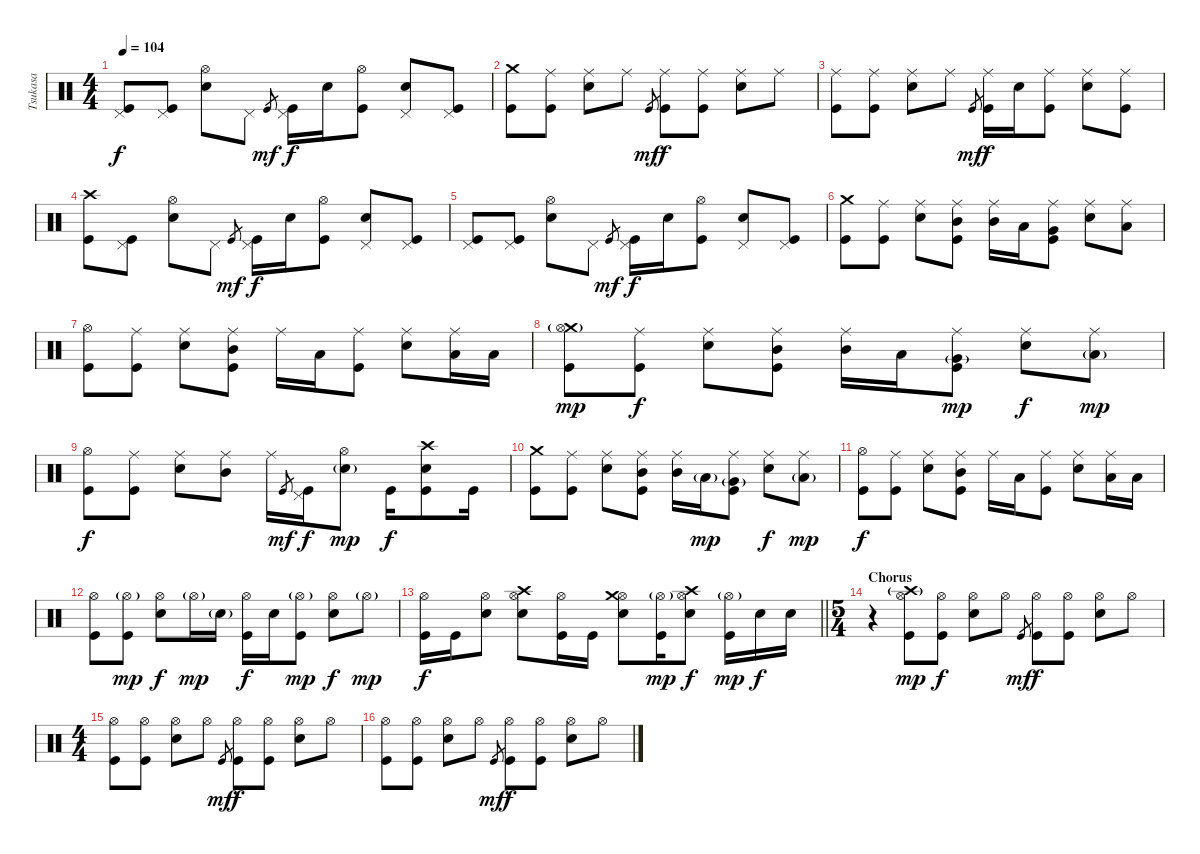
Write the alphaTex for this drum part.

\track ("Tsukasa" "Tsukasa") {instrument percussion}
\staff {score}
\articulation defaults
\ts (4 4)
\tempo 104
\clef neutral
\ks c
("Pedal Hi-Hat (hit)" "Kick (hit)").8{dy f} ("Pedal Hi-Hat (hit)" "Kick (hit)").8 ("Hi-Hat (open)" "Snare (hit) 2").8 "Pedal Hi-Hat (hit)".8 "Kick (hit)".8{gr dy mf} ("Pedal Hi-Hat (hit)" "Kick (hit)").16{dy f} "Snare (hit) 2".16 ("Hi-Hat (open)" "Kick (hit)").8 ("Pedal Hi-Hat (hit)" "Snare (hit) 2").8 ("Pedal Hi-Hat (hit)" "Kick (hit)").8 |
("Crash medium (hit)" "Kick (hit)").8 ("Ride (middle)" "Kick (hit)").8 ("Ride (middle)" "Snare (hit) 2").8 "Ride (middle)".8 "Kick (hit)".8{gr dy mf} ("Ride (middle)" "Kick (hit)").8{dy f} ("Ride (middle)" "Kick (hit)").8 ("Ride (middle)" "Snare (hit) 2").8 "Ride (middle)".8 |
("Ride (middle)" "Kick (hit)").8 ("Ride (middle)" "Kick (hit)").8 ("Ride (middle)" "Snare (hit) 2").8 "Ride (middle)".8 "Kick (hit)".8{gr dy mf} ("Ride (middle)" "Kick (hit)").16{dy f} "Snare (hit) 2".16 ("Ride (middle)" "Kick (hit)").8 ("Ride (middle)" "Snare (hit) 2").8 ("Ride (middle)" "Kick (hit)").8 |
("Crash high (hit)" "Kick (hit)").8 ("Pedal Hi-Hat (hit)" "Kick (hit)").8 ("Hi-Hat (open)" "Snare (hit) 2").8 "Pedal Hi-Hat (hit)".8 "Kick (hit)".8{gr dy mf} ("Pedal Hi-Hat (hit)" "Kick (hit)").16{dy f} "Snare (hit) 2".16 ("Hi-Hat (open)" "Kick (hit)").8 ("Pedal Hi-Hat (hit)" "Snare (hit) 2").8 ("Pedal Hi-Hat (hit)" "Kick (hit)").8 |
("Pedal Hi-Hat (hit)" "Kick (hit)").8 ("Pedal Hi-Hat (hit)" "Kick (hit)").8 ("Hi-Hat (open)" "Snare (hit) 2").8 "Pedal Hi-Hat (hit)".8 "Kick (hit)".8{gr dy mf} ("Pedal Hi-Hat (hit)" "Kick (hit)").16{dy f} "Snare (hit) 2".16 ("Hi-Hat (open)" "Kick (hit)").8 ("Pedal Hi-Hat (hit)" "Snare (hit) 2").8 ("Pedal Hi-Hat (hit)" "Kick (hit)").8 |
("Crash medium (hit)" "Kick (hit)").8 ("Ride (middle)" "Kick (hit)").8 ("Ride (middle)" "Snare (hit) 2").8 ("Ride (middle)" "Mid Tom (hit)" "Kick (hit)").8 ("Ride (middle)" "Mid Tom (hit)").16 "Low Tom (hit)".16 ("Ride (middle)" "Very Low Tom (hit)" "Kick (hit)").8 ("Ride (middle)" "Snare (hit) 2").8 ("Ride (middle)" "Low Floor Tom (hit)").8 |
("Hi-Hat (open)" "Kick (hit)").8 ("Ride (middle)" "Kick (hit)").8 ("Ride (middle)" "Snare (hit) 2").8 ("Ride (middle)" "Mid Tom (hit)" "Kick (hit)").8 "Ride (middle)".16 "Low Tom (hit)".16 ("Ride (middle)" "Kick (hit)").8 ("Ride (middle)" "Snare (hit) 2").8 ("Ride (middle)" "Low Floor Tom (hit)").16 "Low Floor Tom (hit)".16 |
("Crash medium (hit)"{g} "Hi-Hat (open)"{g} "Kick (hit)").8{dy mp} ("Ride (middle)" "Kick (hit)").8{dy f} ("Ride (middle)" "Snare (hit) 2").8 ("Ride (middle)" "Mid Tom (hit)" "Kick (hit)").8 ("Ride (middle)" "Mid Tom (hit)").16 "Low Tom (hit)".16 ("Ride (middle)" "Very Low Tom (hit)"{g} "Kick (hit)").8{dy mp} ("Ride (middle)" "Snare (hit) 2").8{dy f} ("Ride (middle)" "Low Floor Tom (hit)"{g}).8{dy mp} |
("Hi-Hat (open)" "Kick (hit)").8{dy f} ("Ride (middle)" "Kick (hit)").8 ("Ride (middle)" "Snare (hit) 2").8 ("Ride (middle)" "Mid Tom (hit)").8 "Ride (middle)".16 "Kick (hit)".8{gr dy mf} ("Pedal Hi-Hat (hit)" "Kick (hit)").16{dy f} ("Hi-Hat (open)" "Snare (hit) 2"{g}).8{dy mp} "Kick (hit)".16{dy f} ("Crash high (hit)" "Snare (hit) 2" "Kick (hit)").8 "Kick (hit)".16 |
("Crash medium (hit)" "Kick (hit)").8 ("Ride (middle)" "Kick (hit)").8 ("Ride (middle)" "Snare (hit) 2").8 ("Ride (middle)" "Mid Tom (hit)" "Kick (hit)").8 ("Ride (middle)" "Mid Tom (hit)").16 "Low Tom (hit)"{g}.16{dy mp} ("Ride (middle)" "Very Low Tom (hit)"{g} "Kick (hit)").8 ("Ride (middle)" "Snare (hit) 2").8{dy f} ("Ride (middle)" "Low Floor Tom (hit)"{g}).8{dy mp} |
("Hi-Hat (open)" "Kick (hit)").8{dy f} ("Ride (middle)" "Kick (hit)").8 ("Ride (middle)" "Snare (hit) 2").8 ("Ride (middle)" "Mid Tom (hit)" "Kick (hit)").8 "Ride (middle)".16 "Low Tom (hit)".16 ("Ride (middle)" "Kick (hit)").8 ("Ride (middle)" "Snare (hit) 2").8 ("Ride (middle)" "Low Floor Tom (hit)").16 "Low Floor Tom (hit)".16 |
("Hi-Hat (open)" "Kick (hit)").8 ("Hi-Hat (open)"{g} "Kick (hit)").8{dy mp} ("Hi-Hat (open)" "Snare (hit) 2").8{dy f} "Hi-Hat (open)"{g}.16{dy mp} "Snare (hit) 2"{g}.16 ("Hi-Hat (open)" "Kick (hit)").16{dy f} "Snare (hit) 2".16 ("Hi-Hat (open)"{g} "Kick (hit)").8{dy mp} ("Hi-Hat (open)" "Snare (hit) 2").8{dy f} "Hi-Hat (open)"{g}.8{dy mp} |
\barLineRight lightlight
("Hi-Hat (open)" "Kick (hit)").16{dy f} "Kick (hit)".16 ("Hi-Hat (open)" "Snare (hit) 2").8 ("Hi-Hat (open)" "Crash high (hit)" "Snare (hit) 2").8 ("Hi-Hat (open)" "Kick (hit)").16 "Kick (hit)".16 ("Hi-Hat (open)" "Crash medium (hit)" "Snare (hit) 2").8 ("Hi-Hat (open)"{g} "Kick (hit)").16{dy mp} ("Hi-Hat (open)" "Crash high (hit)" "Snare (hit) 2").8{dy f} ("Hi-Hat (open)"{g} "Kick (hit)").16{dy mp} "Snare (hit) 2".16{dy f} "Snare (hit) 2".16 |
\ts (5 4)
\section ("" "Chorus")
\ks aminor
r.4 ("Crash high (hit)"{g} "Hi-Hat (open)" "Kick (hit)").8{dy mp} ("Hi-Hat (open)" "Kick (hit)").8{dy f} ("Hi-Hat (open)" "Snare (hit) 2").8 "Hi-Hat (open)".8 "Kick (hit)".8{gr dy mf} ("Hi-Hat (open)" "Kick (hit)").8{dy f} ("Hi-Hat (open)" "Kick (hit)").8 ("Hi-Hat (open)" "Snare (hit) 2").8 "Hi-Hat (open)".8 |
\ts (4 4)
\ks c
("Hi-Hat (open)" "Kick (hit)").8 ("Hi-Hat (open)" "Kick (hit)").8 ("Hi-Hat (open)" "Snare (hit) 2").8 "Hi-Hat (open)".8 "Kick (hit)".8{gr dy mf} ("Hi-Hat (open)" "Kick (hit)").8{dy f} ("Hi-Hat (open)" "Kick (hit)").8 ("Hi-Hat (open)" "Snare (hit) 2").8 "Hi-Hat (open)".8 |
("Hi-Hat (open)" "Kick (hit)").8 ("Hi-Hat (open)" "Kick (hit)").8 ("Hi-Hat (open)" "Snare (hit) 2").8 "Hi-Hat (open)".8 "Kick (hit)".8{gr dy mf} ("Hi-Hat (open)" "Kick (hit)").8{dy f} ("Hi-Hat (open)" "Kick (hit)").8 ("Hi-Hat (open)" "Snare (hit) 2").8 "Hi-Hat (open)".8
